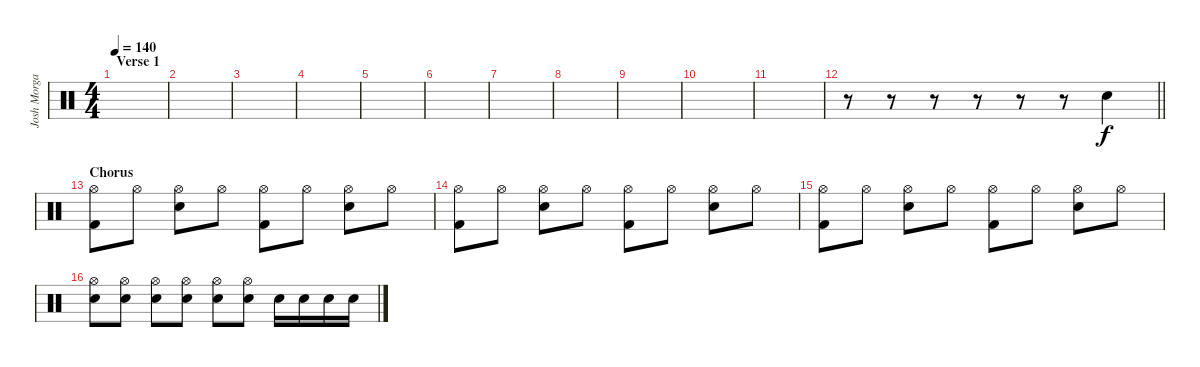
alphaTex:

\track ("Josh Morgan" "Josh Morga") {instrument percussion}
\staff {score}
\articulation defaults
\ts (4 4)
\section ("" "Verse 1")
\tempo 140
\clef neutral
\ks c
|
|
|
|
|
|
|
|
|
|
|
\barLineRight lightlight
r.8 r.8 r.8 r.8 r.8 r.8 "Electric Snare (hit)".4 |
\section ("" "Chorus")
("Hi-Hat (open)" "Kick (hit) 2").8 "Hi-Hat (open)".8 ("Hi-Hat (open)" "Electric Snare (hit)").8 "Hi-Hat (open)".8 ("Hi-Hat (open)" "Kick (hit) 2").8 "Hi-Hat (open)".8 ("Hi-Hat (open)" "Electric Snare (hit)").8 "Hi-Hat (open)".8 |
("Hi-Hat (open)" "Kick (hit) 2").8 "Hi-Hat (open)".8 ("Hi-Hat (open)" "Electric Snare (hit)").8 "Hi-Hat (open)".8 ("Hi-Hat (open)" "Kick (hit) 2").8 "Hi-Hat (open)".8 ("Hi-Hat (open)" "Electric Snare (hit)").8 "Hi-Hat (open)".8 |
("Hi-Hat (open)" "Kick (hit) 2").8 "Hi-Hat (open)".8 ("Hi-Hat (open)" "Electric Snare (hit)").8 "Hi-Hat (open)".8 ("Hi-Hat (open)" "Kick (hit) 2").8 "Hi-Hat (open)".8 ("Hi-Hat (open)" "Electric Snare (hit)").8 "Hi-Hat (open)".8 |
("Hi-Hat (open)" "Electric Snare (hit)").8 ("Hi-Hat (open)" "Electric Snare (hit)").8 ("Hi-Hat (open)" "Electric Snare (hit)").8 ("Hi-Hat (open)" "Electric Snare (hit)").8 ("Hi-Hat (open)" "Electric Snare (hit)").8 ("Hi-Hat (open)" "Electric Snare (hit)").8 "Electric Snare (hit)".16 "Electric Snare (hit)".16 "Electric Snare (hit)".16 "Electric Snare (hit)".16
